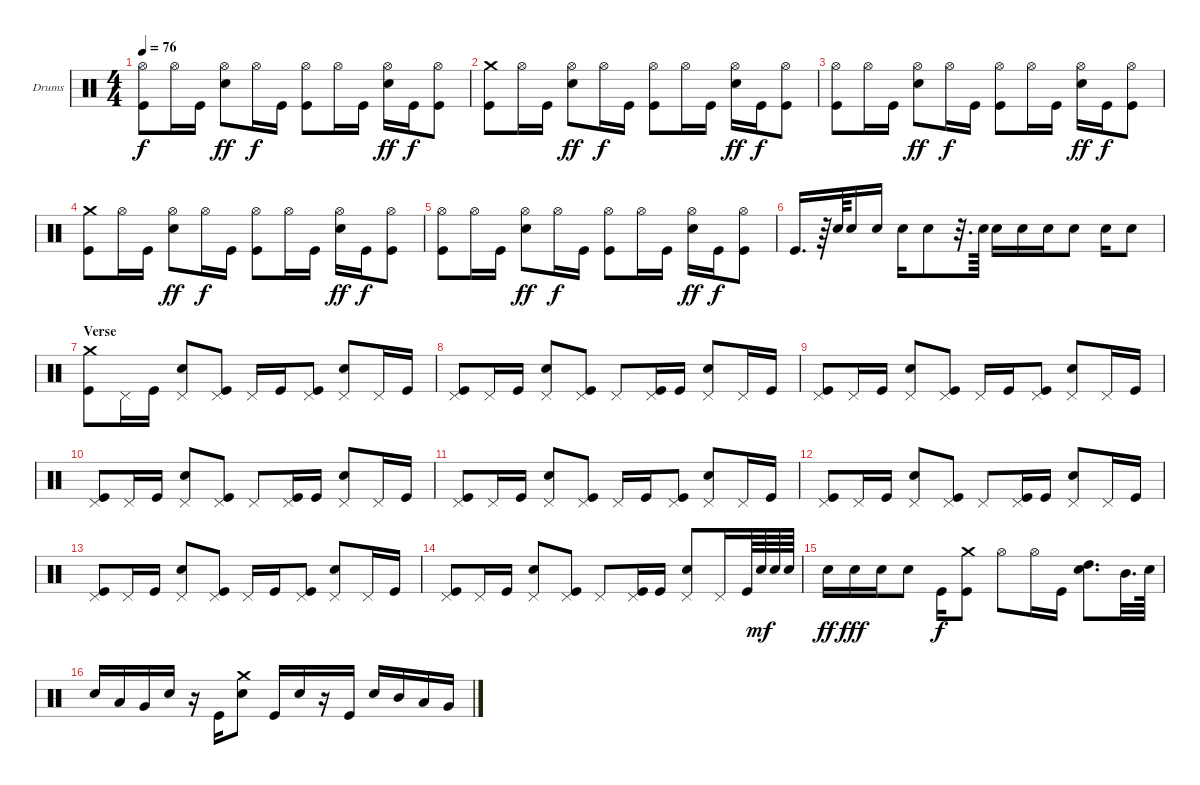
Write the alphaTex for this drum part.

\defaultSystemsLayout 4
\bracketExtendMode nobrackets
\firstSystemTrackNameOrientation horizontal
\otherSystemsTrackNameOrientation horizontal
\track ("Dave Krusen" "Drums") {instrument percussion}
\staff {score}
\articulation defaults
\ts (4 4)
\tempo 76
\clef neutral
\ks c
("Hi-Hat (open)" "Kick (hit)").8{dy f} "Hi-Hat (open)".16 "Kick (hit)".16 ("Snare (hit) 2" "Hi-Hat (open)").8{dy ff} "Hi-Hat (open)".16{dy f} "Kick (hit)".16 ("Kick (hit)" "Hi-Hat (open)").8 "Hi-Hat (open)".16 "Kick (hit)".16 ("Snare (hit) 2" "Hi-Hat (open)").16{dy ff} "Kick (hit)".16{dy f} ("Kick (hit)" "Hi-Hat (open)").8 |
("Crash medium (hit)" "Kick (hit)").8 "Hi-Hat (open)".16 "Kick (hit)".16 ("Snare (hit) 2" "Hi-Hat (open)").8{dy ff} "Hi-Hat (open)".16{dy f} "Kick (hit)".16 ("Kick (hit)" "Hi-Hat (open)").8 "Hi-Hat (open)".16 "Kick (hit)".16 ("Snare (hit) 2" "Hi-Hat (open)").16{dy ff} "Kick (hit)".16{dy f} ("Kick (hit)" "Hi-Hat (open)").8 |
("Hi-Hat (open)" "Kick (hit)").8 "Hi-Hat (open)".16 "Kick (hit)".16 ("Snare (hit) 2" "Hi-Hat (open)").8{dy ff} "Hi-Hat (open)".16{dy f} "Kick (hit)".16 ("Kick (hit)" "Hi-Hat (open)").8 "Hi-Hat (open)".16 "Kick (hit)".16 ("Snare (hit) 2" "Hi-Hat (open)").16{dy ff} "Kick (hit)".16{dy f} ("Kick (hit)" "Hi-Hat (open)").8 |
("Crash medium (hit)" "Kick (hit)").8 "Hi-Hat (open)".16 "Kick (hit)".16 ("Snare (hit) 2" "Hi-Hat (open)").8{dy ff} "Hi-Hat (open)".16{dy f} "Kick (hit)".16 ("Kick (hit)" "Hi-Hat (open)").8 "Hi-Hat (open)".16 "Kick (hit)".16 ("Snare (hit) 2" "Hi-Hat (open)").16{dy ff} "Kick (hit)".16{dy f} ("Kick (hit)" "Hi-Hat (open)").8 |
("Hi-Hat (open)" "Kick (hit)").8 "Hi-Hat (open)".16 "Kick (hit)".16 ("Snare (hit) 2" "Hi-Hat (open)").8{dy ff} "Hi-Hat (open)".16{dy f} "Kick (hit)".16 ("Kick (hit)" "Hi-Hat (open)").8 "Hi-Hat (open)".16 "Kick (hit)".16 ("Snare (hit) 2" "Hi-Hat (open)").16{dy ff} "Kick (hit)".16{dy f} ("Kick (hit)" "Hi-Hat (open)").8 |
"Kick (hit)".16{d} r.64 "Snare (hit) 2".64 "Snare (hit) 2".16 "Snare (hit) 2".16 "Snare (hit) 2".16 "Snare (hit) 2".8 r.32{d} "Snare (hit) 2".64 "Snare (hit) 2".16 "Snare (hit) 2".16 "Snare (hit) 2".16 "Snare (hit) 2".8 "Snare (hit) 2".16 "Snare (hit) 2".8 |
\section ("" "Verse")
("Crash medium (hit)" "Kick (hit)").8 "Pedal Hi-Hat (hit)".16 "Kick (hit)".16 ("Pedal Hi-Hat (hit)" "Snare (hit) 2").8 ("Pedal Hi-Hat (hit)" "Kick (hit)").8 "Pedal Hi-Hat (hit)".16 "Kick (hit)".16 ("Pedal Hi-Hat (hit)" "Kick (hit)").8 ("Pedal Hi-Hat (hit)" "Snare (hit) 2").8 "Pedal Hi-Hat (hit)".16 "Kick (hit)".16 |
("Pedal Hi-Hat (hit)" "Kick (hit)").8 "Pedal Hi-Hat (hit)".16 "Kick (hit)".16 ("Pedal Hi-Hat (hit)" "Snare (hit) 2").8 ("Pedal Hi-Hat (hit)" "Kick (hit)").8 "Pedal Hi-Hat (hit)".8 ("Pedal Hi-Hat (hit)" "Kick (hit)").16 "Kick (hit)".16 ("Pedal Hi-Hat (hit)" "Snare (hit) 2").8 "Pedal Hi-Hat (hit)".16 "Kick (hit)".16 |
("Pedal Hi-Hat (hit)" "Kick (hit)").8 "Pedal Hi-Hat (hit)".16 "Kick (hit)".16 ("Pedal Hi-Hat (hit)" "Snare (hit) 2").8 ("Pedal Hi-Hat (hit)" "Kick (hit)").8 "Pedal Hi-Hat (hit)".16 "Kick (hit)".16 ("Pedal Hi-Hat (hit)" "Kick (hit)").8 ("Pedal Hi-Hat (hit)" "Snare (hit) 2").8 "Pedal Hi-Hat (hit)".16 "Kick (hit)".16 |
("Pedal Hi-Hat (hit)" "Kick (hit)").8 "Pedal Hi-Hat (hit)".16 "Kick (hit)".16 ("Pedal Hi-Hat (hit)" "Snare (hit) 2").8 ("Pedal Hi-Hat (hit)" "Kick (hit)").8 "Pedal Hi-Hat (hit)".8 ("Pedal Hi-Hat (hit)" "Kick (hit)").16 "Kick (hit)".16 ("Pedal Hi-Hat (hit)" "Snare (hit) 2").8 "Pedal Hi-Hat (hit)".16 "Kick (hit)".16 |
("Pedal Hi-Hat (hit)" "Kick (hit)").8 "Pedal Hi-Hat (hit)".16 "Kick (hit)".16 ("Pedal Hi-Hat (hit)" "Snare (hit) 2").8 ("Pedal Hi-Hat (hit)" "Kick (hit)").8 "Pedal Hi-Hat (hit)".16 "Kick (hit)".16 ("Pedal Hi-Hat (hit)" "Kick (hit)").8 ("Pedal Hi-Hat (hit)" "Snare (hit) 2").8 "Pedal Hi-Hat (hit)".16 "Kick (hit)".16 |
("Pedal Hi-Hat (hit)" "Kick (hit)").8 "Pedal Hi-Hat (hit)".16 "Kick (hit)".16 ("Pedal Hi-Hat (hit)" "Snare (hit) 2").8 ("Pedal Hi-Hat (hit)" "Kick (hit)").8 "Pedal Hi-Hat (hit)".8 ("Pedal Hi-Hat (hit)" "Kick (hit)").16 "Kick (hit)".16 ("Pedal Hi-Hat (hit)" "Snare (hit) 2").8 "Pedal Hi-Hat (hit)".16 "Kick (hit)".16 |
("Pedal Hi-Hat (hit)" "Kick (hit)").8 "Pedal Hi-Hat (hit)".16 "Kick (hit)".16 ("Pedal Hi-Hat (hit)" "Snare (hit) 2").8 ("Pedal Hi-Hat (hit)" "Kick (hit)").8 "Pedal Hi-Hat (hit)".16 "Kick (hit)".16 ("Pedal Hi-Hat (hit)" "Kick (hit)").8 ("Pedal Hi-Hat (hit)" "Snare (hit) 2").8 "Pedal Hi-Hat (hit)".16 "Kick (hit)".16 |
("Pedal Hi-Hat (hit)" "Kick (hit)").8 "Pedal Hi-Hat (hit)".16 "Kick (hit)".16 ("Pedal Hi-Hat (hit)" "Snare (hit) 2").8 ("Pedal Hi-Hat (hit)" "Kick (hit)").8 "Pedal Hi-Hat (hit)".8 ("Pedal Hi-Hat (hit)" "Kick (hit)").16 "Kick (hit)".16 ("Pedal Hi-Hat (hit)" "Snare (hit) 2").8 "Pedal Hi-Hat (hit)".16 "Kick (hit)".64 "Snare (hit) 2".64{dy mf} "Snare (hit) 2".64 "Snare (hit) 2".64 |
"Snare (hit) 2".16{dy ff} "Snare (hit) 2".16{dy fff} "Snare (hit) 2".16 "Snare (hit) 2".8 "Kick (hit)".16{dy f} ("Kick (hit)" "Crash medium (hit)").8 "Hi-Hat (open)".8 "Hi-Hat (open)".16 "Kick (hit)".16 ("High Tom (hit)" "Snare (hit) 2").8{d} "Mid Tom (hit)".32{d} "Snare (hit) 2".64 |
"Snare (hit) 2".16 "Low Tom (hit)".16 "Very Low Tom (hit)".16 "Snare (hit) 2".16 r.16 "Kick (hit)".16 ("Crash medium (hit)" "Snare (hit) 2").8 "Kick (hit)".16 "Snare (hit) 2".16 r.16 "Kick (hit)".16 "Snare (hit) 2".16 "Mid Tom (hit)".16 "Low Tom (hit)".16 "Very Low Tom (hit)".16
